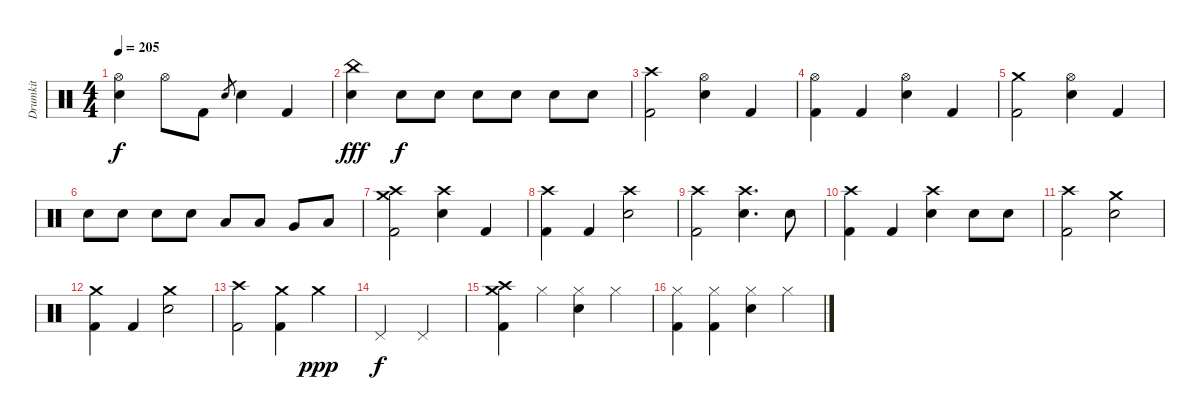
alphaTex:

\track ("Drumkit" "Drumkit") {instrument percussion}
\staff {score}
\articulation defaults
\ts (4 4)
\tempo 205
\clef neutral
\ks c
("Hi-Hat (open)" "Electric Snare (hit)").4{dy f} "Hi-Hat (open)".8 "Kick (hit) 2".8 "Electric Snare (hit)".8{gr} "Electric Snare (hit)".4 "Kick (hit) 2".4 |
("China (hit)" "Electric Snare (hit)").4{dy fff} "Electric Snare (hit)".8{dy f} "Electric Snare (hit)".8 "Electric Snare (hit)".8 "Electric Snare (hit)".8 "Electric Snare (hit)".8 "Electric Snare (hit)".8 |
("Crash high (hit)" "Kick (hit) 2").2 ("Hi-Hat (open)" "Electric Snare (hit)").4 "Kick (hit) 2".4 |
("Hi-Hat (open)" "Kick (hit) 2").4 "Kick (hit) 2".4 ("Hi-Hat (open)" "Electric Snare (hit)").4 "Kick (hit) 2".4 |
("Crash medium (hit)" "Kick (hit) 2").2 ("Hi-Hat (open)" "Electric Snare (hit)").4 "Kick (hit) 2".4 |
"Electric Snare (hit)".8 "Electric Snare (hit)".8 "Electric Snare (hit)".8 "Electric Snare (hit)".8 "Low Tom (hit)".8 "Low Tom (hit)".8 "Very Low Tom (hit)".8 "Low Floor Tom (hit)".8 |
("Crash high (hit)" "Crash medium (hit)" "Kick (hit) 2").2 ("Crash high (hit)" "Electric Snare (hit)").4 "Kick (hit) 2".4 |
("Crash high (hit)" "Kick (hit) 2").4 "Kick (hit) 2".4 ("Crash high (hit)" "Electric Snare (hit)").2 |
("Crash high (hit)" "Kick (hit) 2").2 ("Crash high (hit)" "Electric Snare (hit)").4{d} "Electric Snare (hit)".8 |
("Crash high (hit)" "Kick (hit) 2").4 "Kick (hit) 2".4 ("Crash high (hit)" "Electric Snare (hit)").4 "Electric Snare (hit)".8 "Electric Snare (hit)".8 |
("Crash high (hit)" "Kick (hit) 2").2 ("Crash medium (hit)" "Electric Snare (hit)").2 |
("Crash medium (hit)" "Kick (hit) 2").4 "Kick (hit) 2".4 ("Crash medium (hit)" "Electric Snare (hit)").2 |
("Crash high (hit)" "Kick (hit) 2").2 ("Crash medium (hit)" "Kick (hit) 2").4 "Crash medium (hit)".4{dy ppp} |
"Pedal Hi-Hat (hit)".2{dy f} "Pedal Hi-Hat (hit)".2 |
("Crash high (hit)" "Crash medium (hit)" "Kick (hit) 2").4 "Hi-Hat (closed)".4 ("Hi-Hat (closed)" "Electric Snare (hit)").4 "Hi-Hat (closed)".4 |
("Hi-Hat (closed)" "Kick (hit) 2").4 ("Hi-Hat (closed)" "Kick (hit) 2").4 ("Hi-Hat (closed)" "Electric Snare (hit)").4 "Hi-Hat (closed)".4
